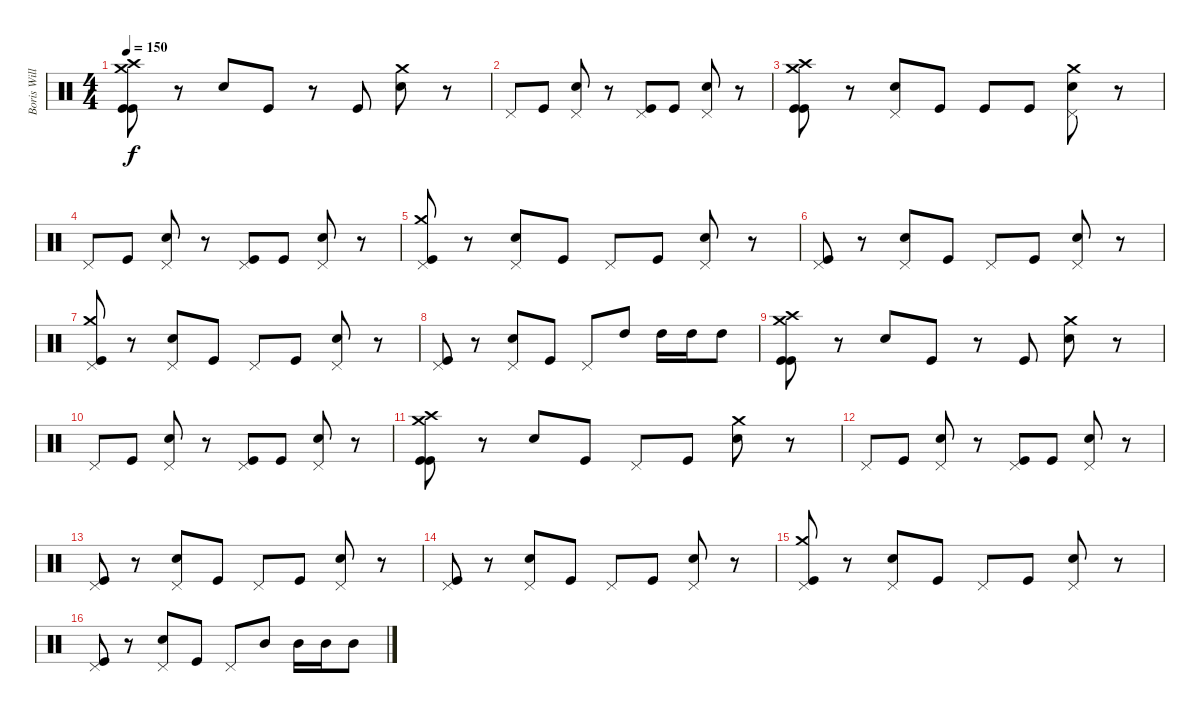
\track ("Boris Williams" "Boris Will") {instrument percussion}
\staff {score}
\articulation defaults
\ts (4 4)
\tempo 150
\clef neutral
\ks c
("Kick (hit)" "Kick (hit)" "Crash high (hit)" "Crash medium (hit)").8{dy f} r.8 "Snare (hit) 2".8 "Kick (hit)".8 r.8 "Kick (hit)".8 ("Snare (hit) 2" "Crash medium (hit)").8 r.8 |
"Pedal Hi-Hat (hit)".8 "Kick (hit)".8 ("Pedal Hi-Hat (hit)" "Snare (hit) 2").8 r.8 ("Pedal Hi-Hat (hit)" "Kick (hit)").8 "Kick (hit)".8 ("Pedal Hi-Hat (hit)" "Snare (hit) 2").8 r.8 |
("Kick (hit)" "Kick (hit)" "Crash high (hit)" "Crash medium (hit)").8 r.8 ("Pedal Hi-Hat (hit)" "Snare (hit) 2").8 "Kick (hit)".8 "Kick (hit)".8 "Kick (hit)".8 ("Pedal Hi-Hat (hit)" "Snare (hit) 2" "Crash medium (hit)").8 r.8 |
"Pedal Hi-Hat (hit)".8 "Kick (hit)".8 ("Pedal Hi-Hat (hit)" "Snare (hit) 2").8 r.8 ("Pedal Hi-Hat (hit)" "Kick (hit)").8 "Kick (hit)".8 ("Pedal Hi-Hat (hit)" "Snare (hit) 2").8 r.8 |
("Pedal Hi-Hat (hit)" "Kick (hit)" "Crash medium (hit)").8 r.8 ("Pedal Hi-Hat (hit)" "Snare (hit) 2").8 "Kick (hit)".8 "Pedal Hi-Hat (hit)".8 "Kick (hit)".8 ("Pedal Hi-Hat (hit)" "Snare (hit) 2").8 r.8 |
("Pedal Hi-Hat (hit)" "Kick (hit)").8 r.8 ("Pedal Hi-Hat (hit)" "Snare (hit) 2").8 "Kick (hit)".8 "Pedal Hi-Hat (hit)".8 "Kick (hit)".8 ("Pedal Hi-Hat (hit)" "Snare (hit) 2").8 r.8 |
("Pedal Hi-Hat (hit)" "Kick (hit)" "Crash medium (hit)").8 r.8 ("Pedal Hi-Hat (hit)" "Snare (hit) 2").8 "Kick (hit)".8 "Pedal Hi-Hat (hit)".8 "Kick (hit)".8 ("Pedal Hi-Hat (hit)" "Snare (hit) 2").8 r.8 |
("Pedal Hi-Hat (hit)" "Kick (hit)").8 r.8 ("Pedal Hi-Hat (hit)" "Snare (hit) 2").8 "Kick (hit)".8 "Pedal Hi-Hat (hit)".8 "High Tom (hit)".8 "High Tom (hit)".16 "High Tom (hit)".16 "High Tom (hit)".8 |
("Kick (hit)" "Kick (hit)" "Crash high (hit)" "Crash medium (hit)").8 r.8 "Snare (hit) 2".8 "Kick (hit)".8 r.8 "Kick (hit)".8 ("Snare (hit) 2" "Crash medium (hit)").8 r.8 |
"Pedal Hi-Hat (hit)".8 "Kick (hit)".8 ("Pedal Hi-Hat (hit)" "Snare (hit) 2").8 r.8 ("Pedal Hi-Hat (hit)" "Kick (hit)").8 "Kick (hit)".8 ("Pedal Hi-Hat (hit)" "Snare (hit) 2").8 r.8 |
("Kick (hit)" "Kick (hit)" "Crash high (hit)" "Crash medium (hit)").8 r.8 "Snare (hit) 2".8 "Kick (hit)".8 "Pedal Hi-Hat (hit)".8 "Kick (hit)".8 ("Snare (hit) 2" "Crash medium (hit)").8 r.8 |
"Pedal Hi-Hat (hit)".8 "Kick (hit)".8 ("Pedal Hi-Hat (hit)" "Snare (hit) 2").8 r.8 ("Pedal Hi-Hat (hit)" "Kick (hit)").8 "Kick (hit)".8 ("Pedal Hi-Hat (hit)" "Snare (hit) 2").8 r.8 |
("Pedal Hi-Hat (hit)" "Kick (hit)").8 r.8 ("Pedal Hi-Hat (hit)" "Snare (hit) 2").8 "Kick (hit)".8 "Pedal Hi-Hat (hit)".8 "Kick (hit)".8 ("Pedal Hi-Hat (hit)" "Snare (hit) 2").8 r.8 |
("Pedal Hi-Hat (hit)" "Kick (hit)").8 r.8 ("Pedal Hi-Hat (hit)" "Snare (hit) 2").8 "Kick (hit)".8 "Pedal Hi-Hat (hit)".8 "Kick (hit)".8 ("Pedal Hi-Hat (hit)" "Snare (hit) 2").8 r.8 |
("Pedal Hi-Hat (hit)" "Kick (hit)" "Crash medium (hit)").8 r.8 ("Pedal Hi-Hat (hit)" "Snare (hit) 2").8 "Kick (hit)".8 "Pedal Hi-Hat (hit)".8 "Kick (hit)".8 ("Pedal Hi-Hat (hit)" "Snare (hit) 2").8 r.8 |
("Pedal Hi-Hat (hit)" "Kick (hit)").8 r.8 ("Pedal Hi-Hat (hit)" "Snare (hit) 2").8 "Kick (hit)".8 "Pedal Hi-Hat (hit)".8 "Mid Tom (hit)".8 "Mid Tom (hit)".16 "Mid Tom (hit)".16 "Mid Tom (hit)".8
